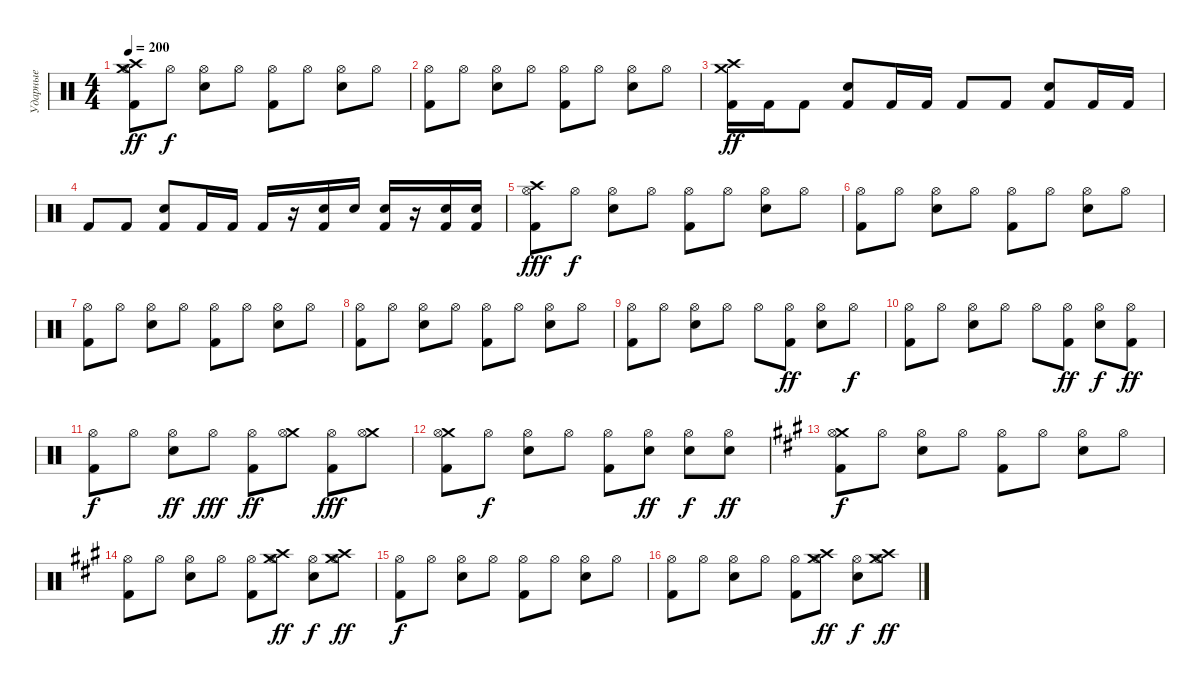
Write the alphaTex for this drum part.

\track ("Ударные" "Ударные") {instrument percussion}
\staff {score}
\articulation defaults
\ts (4 4)
\tempo 200
\clef neutral
\ks c
("Crash medium (hit)" "Crash high (hit)" "Hi-Hat (open)" "Kick (hit) 2").8{dy ff} "Hi-Hat (open)".8{dy f} ("Hi-Hat (open)" "Electric Snare (hit)").8 "Hi-Hat (open)".8 ("Hi-Hat (open)" "Kick (hit) 2").8 "Hi-Hat (open)".8 ("Hi-Hat (open)" "Electric Snare (hit)").8 "Hi-Hat (open)".8 |
("Hi-Hat (open)" "Kick (hit) 2").8 "Hi-Hat (open)".8 ("Hi-Hat (open)" "Electric Snare (hit)").8 "Hi-Hat (open)".8 ("Hi-Hat (open)" "Kick (hit) 2").8 "Hi-Hat (open)".8 ("Hi-Hat (open)" "Electric Snare (hit)").8 "Hi-Hat (open)".8 |
("Crash high (hit)" "Crash medium (hit)" "Kick (hit) 2").16{dy ff} "Kick (hit) 2".16 "Kick (hit) 2".8 ("Electric Snare (hit)" "Kick (hit) 2").8 "Kick (hit) 2".16 "Kick (hit) 2".16 "Kick (hit) 2".8 "Kick (hit) 2".8 ("Electric Snare (hit)" "Kick (hit) 2").8 "Kick (hit) 2".16 "Kick (hit) 2".16 |
"Kick (hit) 2".8 "Kick (hit) 2".8 ("Electric Snare (hit)" "Kick (hit) 2").8 "Kick (hit) 2".16 "Kick (hit) 2".16 "Kick (hit) 2".16 r.16 ("Electric Snare (hit)" "Kick (hit) 2").16 "Electric Snare (hit)".16 ("Electric Snare (hit)" "Kick (hit) 2").16 r.16 ("Electric Snare (hit)" "Kick (hit) 2").16 ("Electric Snare (hit)" "Kick (hit) 2").16 |
("Crash high (hit)" "Hi-Hat (open)" "Kick (hit) 2").8{dy fff} "Hi-Hat (open)".8{dy f} ("Hi-Hat (open)" "Electric Snare (hit)").8 "Hi-Hat (open)".8 ("Hi-Hat (open)" "Kick (hit) 2").8 "Hi-Hat (open)".8 ("Hi-Hat (open)" "Electric Snare (hit)").8 "Hi-Hat (open)".8 |
("Hi-Hat (open)" "Kick (hit) 2").8 "Hi-Hat (open)".8 ("Hi-Hat (open)" "Electric Snare (hit)").8 "Hi-Hat (open)".8 ("Hi-Hat (open)" "Kick (hit) 2").8 "Hi-Hat (open)".8 ("Hi-Hat (open)" "Electric Snare (hit)").8 "Hi-Hat (open)".8 |
("Hi-Hat (open)" "Kick (hit) 2").8 "Hi-Hat (open)".8 ("Hi-Hat (open)" "Electric Snare (hit)").8 "Hi-Hat (open)".8 ("Hi-Hat (open)" "Kick (hit) 2").8 "Hi-Hat (open)".8 ("Hi-Hat (open)" "Electric Snare (hit)").8 "Hi-Hat (open)".8 |
("Hi-Hat (open)" "Kick (hit) 2").8 "Hi-Hat (open)".8 ("Hi-Hat (open)" "Electric Snare (hit)").8 "Hi-Hat (open)".8 ("Hi-Hat (open)" "Kick (hit) 2").8 "Hi-Hat (open)".8 ("Hi-Hat (open)" "Electric Snare (hit)").8 "Hi-Hat (open)".8 |
("Hi-Hat (open)" "Kick (hit) 2").8 "Hi-Hat (open)".8 ("Hi-Hat (open)" "Electric Snare (hit)").8 "Hi-Hat (open)".8 "Hi-Hat (open)".8 ("Hi-Hat (open)" "Kick (hit) 2").8{dy ff} ("Hi-Hat (open)" "Electric Snare (hit)").8 "Hi-Hat (open)".8{dy f} |
("Hi-Hat (open)" "Kick (hit) 2").8 "Hi-Hat (open)".8 ("Hi-Hat (open)" "Electric Snare (hit)").8 "Hi-Hat (open)".8 "Hi-Hat (open)".8 ("Hi-Hat (open)" "Kick (hit) 2").8{dy ff} ("Hi-Hat (open)" "Electric Snare (hit)").8{dy f} ("Hi-Hat (open)" "Kick (hit) 2").8{dy ff} |
("Hi-Hat (open)" "Kick (hit) 2").8{dy f} "Hi-Hat (open)".8 ("Hi-Hat (open)" "Electric Snare (hit)").8{dy ff} "Hi-Hat (open)".8{dy fff} ("Hi-Hat (open)" "Kick (hit) 2").8{dy ff} ("Crash medium (hit)" "Hi-Hat (open)").8 ("Hi-Hat (open)" "Kick (hit) 2").8{dy fff} ("Crash medium (hit)" "Hi-Hat (open)").8 |
("Crash medium (hit)" "Hi-Hat (open)" "Kick (hit) 2").8 "Hi-Hat (open)".8{dy f} ("Hi-Hat (open)" "Electric Snare (hit)").8 "Hi-Hat (open)".8 ("Hi-Hat (open)" "Kick (hit) 2").8 ("Hi-Hat (open)" "Electric Snare (hit)").8{dy ff} ("Hi-Hat (open)" "Electric Snare (hit)").8{dy f} ("Hi-Hat (open)" "Electric Snare (hit)").8{dy ff} |
\ks f#minor
("Crash medium (hit)" "Hi-Hat (open)" "Kick (hit) 2").8{dy f} "Hi-Hat (open)".8 ("Hi-Hat (open)" "Electric Snare (hit)").8 "Hi-Hat (open)".8 ("Hi-Hat (open)" "Kick (hit) 2").8 "Hi-Hat (open)".8 ("Hi-Hat (open)" "Electric Snare (hit)").8 "Hi-Hat (open)".8 |
("Hi-Hat (open)" "Kick (hit) 2").8 "Hi-Hat (open)".8 ("Hi-Hat (open)" "Electric Snare (hit)").8 "Hi-Hat (open)".8 ("Hi-Hat (open)" "Kick (hit) 2").8 ("Crash medium (hit)" "Crash high (hit)" "Hi-Hat (open)").8{dy ff} ("Hi-Hat (open)" "Electric Snare (hit)").8{dy f} ("Crash medium (hit)" "Crash high (hit)" "Hi-Hat (open)").8{dy ff} |
("Hi-Hat (open)" "Kick (hit) 2").8{dy f} "Hi-Hat (open)".8 ("Hi-Hat (open)" "Electric Snare (hit)").8 "Hi-Hat (open)".8 ("Hi-Hat (open)" "Kick (hit) 2").8 "Hi-Hat (open)".8 ("Hi-Hat (open)" "Electric Snare (hit)").8 "Hi-Hat (open)".8 |
("Hi-Hat (open)" "Kick (hit) 2").8 "Hi-Hat (open)".8 ("Hi-Hat (open)" "Electric Snare (hit)").8 "Hi-Hat (open)".8 ("Hi-Hat (open)" "Kick (hit) 2").8 ("Crash medium (hit)" "Crash high (hit)" "Hi-Hat (open)").8{dy ff} ("Hi-Hat (open)" "Electric Snare (hit)").8{dy f} ("Crash medium (hit)" "Crash high (hit)" "Hi-Hat (open)").8{dy ff}
